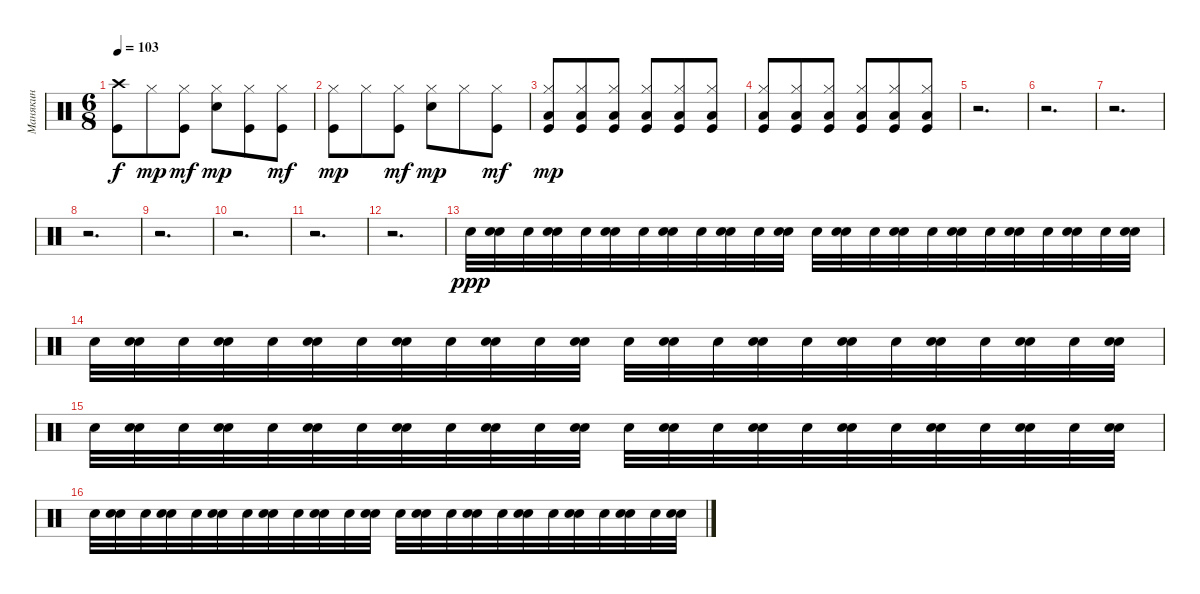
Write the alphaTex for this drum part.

\track ("Манякин" "Манякин") {instrument percussion}
\staff {score}
\articulation defaults
\ts (6 8)
\tempo 103
\clef neutral
\ks c
("Crash high (hit)" "Kick (hit)").8{dy f} "Hi-Hat (closed)".8{dy mp} ("Hi-Hat (closed)" "Kick (hit)").8{dy mf} ("Electric Snare (hit)" "Hi-Hat (closed)").8{dy mp} ("Kick (hit)" "Hi-Hat (closed)").8 ("Hi-Hat (closed)" "Kick (hit)").8{dy mf} |
("Hi-Hat (closed)" "Kick (hit)").8{dy mp} "Hi-Hat (closed)".8 ("Hi-Hat (closed)" "Kick (hit)").8{dy mf} ("Hi-Hat (closed)" "Electric Snare (hit)").8{dy mp} "Hi-Hat (closed)".8 ("Hi-Hat (closed)" "Kick (hit)").8{dy mf} |
("Hi-Hat (closed)" "Low Floor Tom (hit)" "Kick (hit)").8{dy mp} ("Hi-Hat (closed)" "Low Floor Tom (hit)" "Kick (hit)").8 ("Hi-Hat (closed)" "Low Floor Tom (hit)" "Kick (hit)").8 ("Hi-Hat (closed)" "Low Floor Tom (hit)" "Kick (hit)").8 ("Hi-Hat (closed)" "Low Floor Tom (hit)" "Kick (hit)").8 ("Hi-Hat (closed)" "Low Floor Tom (hit)" "Kick (hit)").8 |
("Hi-Hat (closed)" "Low Floor Tom (hit)" "Kick (hit)").8 ("Hi-Hat (closed)" "Low Floor Tom (hit)" "Kick (hit)").8 ("Hi-Hat (closed)" "Low Floor Tom (hit)" "Kick (hit)").8 ("Hi-Hat (closed)" "Low Floor Tom (hit)" "Kick (hit)").8 ("Hi-Hat (closed)" "Low Floor Tom (hit)" "Kick (hit)").8 ("Hi-Hat (closed)" "Low Floor Tom (hit)" "Kick (hit)").8 |
r.2{d} |
r.2{d} |
r.2{d} |
r.2{d} |
r.2{d} |
r.2{d} |
r.2{d} |
r.2{d} |
"Snare (hit) 2".32{dy ppp} ("Snare (hit) 2" "Snare (hit) 2").32 "Snare (hit) 2".32 ("Snare (hit) 2" "Snare (hit) 2").32 "Snare (hit) 2".32 ("Snare (hit) 2" "Snare (hit) 2").32 "Snare (hit) 2".32 ("Snare (hit) 2" "Snare (hit) 2").32 "Snare (hit) 2".32 ("Snare (hit) 2" "Snare (hit) 2").32 "Snare (hit) 2".32 ("Snare (hit) 2" "Snare (hit) 2").32 "Snare (hit) 2".32 ("Snare (hit) 2" "Snare (hit) 2").32 "Snare (hit) 2".32 ("Snare (hit) 2" "Snare (hit) 2").32 "Snare (hit) 2".32 ("Snare (hit) 2" "Snare (hit) 2").32 "Snare (hit) 2".32 ("Snare (hit) 2" "Snare (hit) 2").32 "Snare (hit) 2".32 ("Snare (hit) 2" "Snare (hit) 2").32 "Snare (hit) 2".32 ("Snare (hit) 2" "Snare (hit) 2").32 |
"Snare (hit) 2".32 ("Snare (hit) 2" "Snare (hit) 2").32 "Snare (hit) 2".32 ("Snare (hit) 2" "Snare (hit) 2").32 "Snare (hit) 2".32 ("Snare (hit) 2" "Snare (hit) 2").32 "Snare (hit) 2".32 ("Snare (hit) 2" "Snare (hit) 2").32 "Snare (hit) 2".32 ("Snare (hit) 2" "Snare (hit) 2").32 "Snare (hit) 2".32 ("Snare (hit) 2" "Snare (hit) 2").32 "Snare (hit) 2".32 ("Snare (hit) 2" "Snare (hit) 2").32 "Snare (hit) 2".32 ("Snare (hit) 2" "Snare (hit) 2").32 "Snare (hit) 2".32 ("Snare (hit) 2" "Snare (hit) 2").32 "Snare (hit) 2".32 ("Snare (hit) 2" "Snare (hit) 2").32 "Snare (hit) 2".32 ("Snare (hit) 2" "Snare (hit) 2").32 "Snare (hit) 2".32 ("Snare (hit) 2" "Snare (hit) 2").32 |
"Snare (hit) 2".32 ("Snare (hit) 2" "Snare (hit) 2").32 "Snare (hit) 2".32 ("Snare (hit) 2" "Snare (hit) 2").32 "Snare (hit) 2".32 ("Snare (hit) 2" "Snare (hit) 2").32 "Snare (hit) 2".32 ("Snare (hit) 2" "Snare (hit) 2").32 "Snare (hit) 2".32 ("Snare (hit) 2" "Snare (hit) 2").32 "Snare (hit) 2".32 ("Snare (hit) 2" "Snare (hit) 2").32 "Snare (hit) 2".32 ("Snare (hit) 2" "Snare (hit) 2").32 "Snare (hit) 2".32 ("Snare (hit) 2" "Snare (hit) 2").32 "Snare (hit) 2".32 ("Snare (hit) 2" "Snare (hit) 2").32 "Snare (hit) 2".32 ("Snare (hit) 2" "Snare (hit) 2").32 "Snare (hit) 2".32 ("Snare (hit) 2" "Snare (hit) 2").32 "Snare (hit) 2".32 ("Snare (hit) 2" "Snare (hit) 2").32 |
"Snare (hit) 2".32 ("Snare (hit) 2" "Snare (hit) 2").32 "Snare (hit) 2".32 ("Snare (hit) 2" "Snare (hit) 2").32 "Snare (hit) 2".32 ("Snare (hit) 2" "Snare (hit) 2").32 "Snare (hit) 2".32 ("Snare (hit) 2" "Snare (hit) 2").32 "Snare (hit) 2".32 ("Snare (hit) 2" "Snare (hit) 2").32 "Snare (hit) 2".32 ("Snare (hit) 2" "Snare (hit) 2").32 "Snare (hit) 2".32 ("Snare (hit) 2" "Snare (hit) 2").32 "Snare (hit) 2".32 ("Snare (hit) 2" "Snare (hit) 2").32 "Snare (hit) 2".32 ("Snare (hit) 2" "Snare (hit) 2").32 "Snare (hit) 2".32 ("Snare (hit) 2" "Snare (hit) 2").32 "Snare (hit) 2".32 ("Snare (hit) 2" "Snare (hit) 2").32 "Snare (hit) 2".32 ("Snare (hit) 2" "Snare (hit) 2").32
